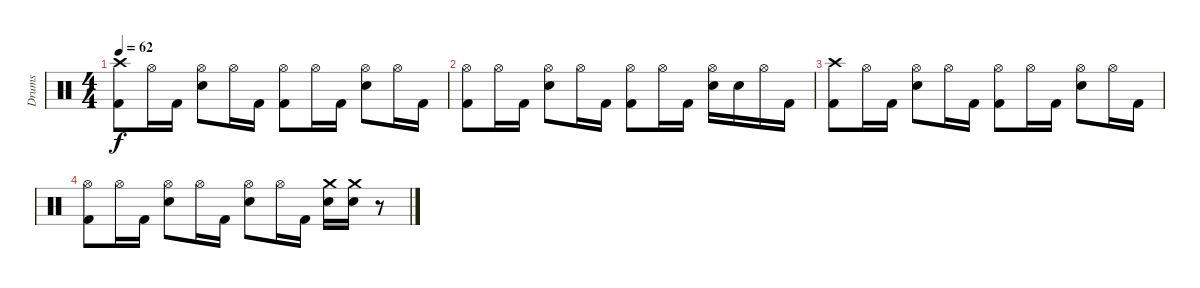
\track ("Drums" "Drums") {instrument percussion}
\staff {score}
\articulation defaults
\ts (4 4)
\tempo 62
\clef neutral
\ks c
("Crash high (hit)" "Kick (hit) 2").8{dy f} "Hi-Hat (open)".16 "Kick (hit) 2".16 ("Hi-Hat (open)" "Electric Snare (hit)").8 "Hi-Hat (open)".16 "Kick (hit) 2".16 ("Hi-Hat (open)" "Kick (hit) 2").8 "Hi-Hat (open)".16 "Kick (hit) 2".16 ("Hi-Hat (open)" "Electric Snare (hit)").8 "Hi-Hat (open)".16 "Kick (hit) 2".16 |
("Hi-Hat (open)" "Kick (hit) 2").8 "Hi-Hat (open)".16 "Kick (hit) 2".16 ("Hi-Hat (open)" "Electric Snare (hit)").8 "Hi-Hat (open)".16 "Kick (hit) 2".16 ("Hi-Hat (open)" "Kick (hit) 2").8 "Hi-Hat (open)".16 "Kick (hit) 2".16 ("Hi-Hat (open)" "Electric Snare (hit)").16 "Electric Snare (hit)".16 "Hi-Hat (open)".16 "Kick (hit) 2".16 |
("Crash high (hit)" "Kick (hit) 2").8 "Hi-Hat (open)".16 "Kick (hit) 2".16 ("Hi-Hat (open)" "Electric Snare (hit)").8 "Hi-Hat (open)".16 "Kick (hit) 2".16 ("Hi-Hat (open)" "Kick (hit) 2").8 "Hi-Hat (open)".16 "Kick (hit) 2".16 ("Hi-Hat (open)" "Electric Snare (hit)").8 "Hi-Hat (open)".16 "Kick (hit) 2".16 |
("Hi-Hat (open)" "Kick (hit) 2").8 "Hi-Hat (open)".16 "Kick (hit) 2".16 ("Hi-Hat (open)" "Electric Snare (hit)").8 "Hi-Hat (open)".16 "Kick (hit) 2".16 ("Hi-Hat (open)" "Electric Snare (hit)").8 "Hi-Hat (open)".16 "Kick (hit) 2".16 ("Crash medium (hit)" "Electric Snare (hit)").16 ("Crash medium (hit)" "Electric Snare (hit)").16 r.8
